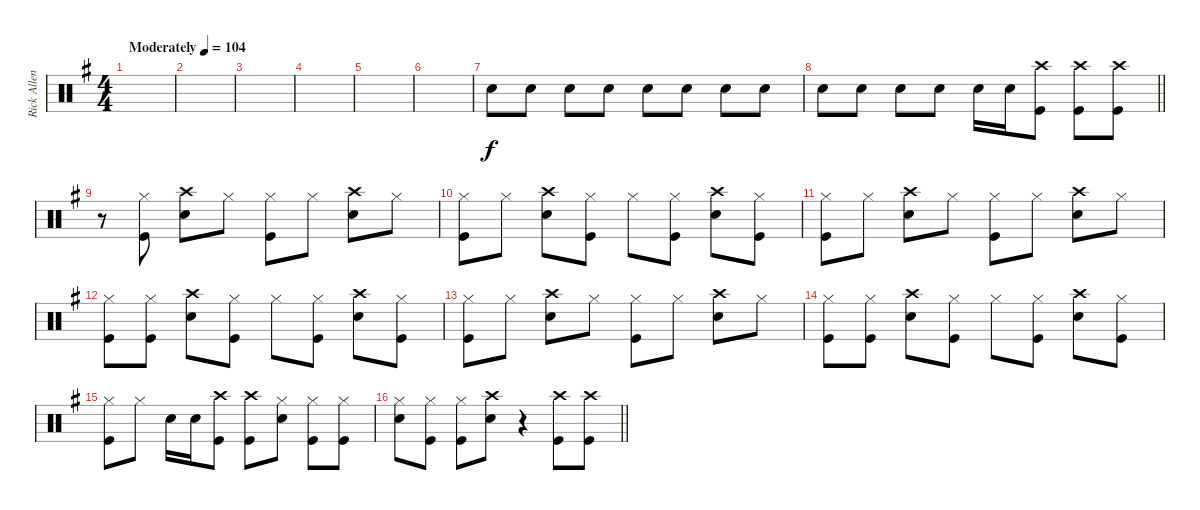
\track ("Rick Allen" "Rick Allen") {instrument percussion}
\staff {score}
\articulation defaults
\ts (4 4)
\tempo (104 "Moderately")
\clef neutral
\ks eminor
|
|
|
|
|
|
"Snare (hit) 2".8 "Snare (hit) 2".8 "Snare (hit) 2".8 "Snare (hit) 2".8 "Snare (hit) 2".8 "Snare (hit) 2".8 "Snare (hit) 2".8 "Snare (hit) 2".8 |
\barLineRight lightlight "Snare (hit) 2".8 "Snare (hit) 2".8 "Snare (hit) 2".8 "Snare (hit) 2".8 "Snare (hit) 2".16 "Snare (hit) 2".16
("Crash high (hit)" "Kick (hit)").8 ("Crash high (hit)" "Kick (hit)").8 ("Crash high (hit)" "Kick (hit)").8 |
r.8 ("Hi-Hat (closed)" "Kick (hit)").8 ("Crash high (hit)" "Snare (hit) 2").8 "Hi-Hat (closed)".8 ("Hi-Hat (closed)" "Kick (hit)").8 "Hi-Hat (closed)".8 ("Crash high (hit)" "Snare (hit) 2").8 "Hi-Hat (closed)".8 |
("Hi-Hat (closed)" "Kick (hit)").8 "Hi-Hat (closed)".8 ("Crash high (hit)" "Snare (hit) 2").8 ("Hi-Hat (closed)" "Kick (hit)").8 "Hi-Hat (closed)".8 ("Hi-Hat (closed)" "Kick (hit)").8 ("Crash high (hit)" "Snare (hit) 2").8 ("Hi-Hat (closed)" "Kick (hit)").8 |
("Hi-Hat (closed)" "Kick (hit)").8 "Hi-Hat (closed)".8 ("Crash high (hit)" "Snare (hit) 2").8 "Hi-Hat (closed)".8 ("Hi-Hat (closed)" "Kick (hit)").8 "Hi-Hat (closed)".8 ("Crash high (hit)" "Snare (hit) 2").8 "Hi-Hat (closed)".8 |
("Hi-Hat (closed)" "Kick (hit)").8 ("Hi-Hat (closed)" "Kick (hit)").8 ("Crash high (hit)" "Snare (hit) 2").8 ("Hi-Hat (closed)" "Kick (hit)").8 "Hi-Hat (closed)".8 ("Hi-Hat (closed)" "Kick (hit)").8 ("Crash high (hit)" "Snare (hit) 2").8 ("Hi-Hat (closed)" "Kick (hit)").8 |
("Hi-Hat (closed)" "Kick (hit)").8 "Hi-Hat (closed)".8 ("Crash high (hit)" "Snare (hit) 2").8 "Hi-Hat (closed)".8 ("Hi-Hat (closed)" "Kick (hit)").8 "Hi-Hat (closed)".8 ("Crash high (hit)" "Snare (hit) 2").8 "Hi-Hat (closed)".8 |
("Hi-Hat (closed)" "Kick (hit)").8 ("Hi-Hat (closed)" "Kick (hit)").8 ("Crash high (hit)" "Snare (hit) 2").8 ("Hi-Hat (closed)" "Kick (hit)").8 "Hi-Hat (closed)".8 ("Hi-Hat (closed)" "Kick (hit)").8 ("Crash high (hit)" "Snare (hit) 2").8 ("Hi-Hat (closed)" "Kick (hit)").8 |
("Hi-Hat (closed)" "Kick (hit)").8 "Hi-Hat (closed)".8 "Snare (hit) 2".16 "Snare (hit) 2".16 ("Crash high (hit)" "Kick (hit)").8 ("Crash high (hit)" "Kick (hit)").8 ("Hi-Hat (closed)" "Snare (hit) 2").8 ("Hi-Hat (closed)" "Kick (hit)").8 ("Hi-Hat (closed)" "Kick (hit)").8 |
\barLineRight lightlight
("Hi-Hat (closed)" "Snare (hit) 2").8 ("Hi-Hat (closed)" "Kick (hit)").8 ("Hi-Hat (closed)" "Kick (hit)").8 ("Crash high (hit)" "Snare (hit) 2").8 r.4 ("Crash high (hit)" "Kick (hit)").8 ("Crash high (hit)" "Kick (hit)").8
